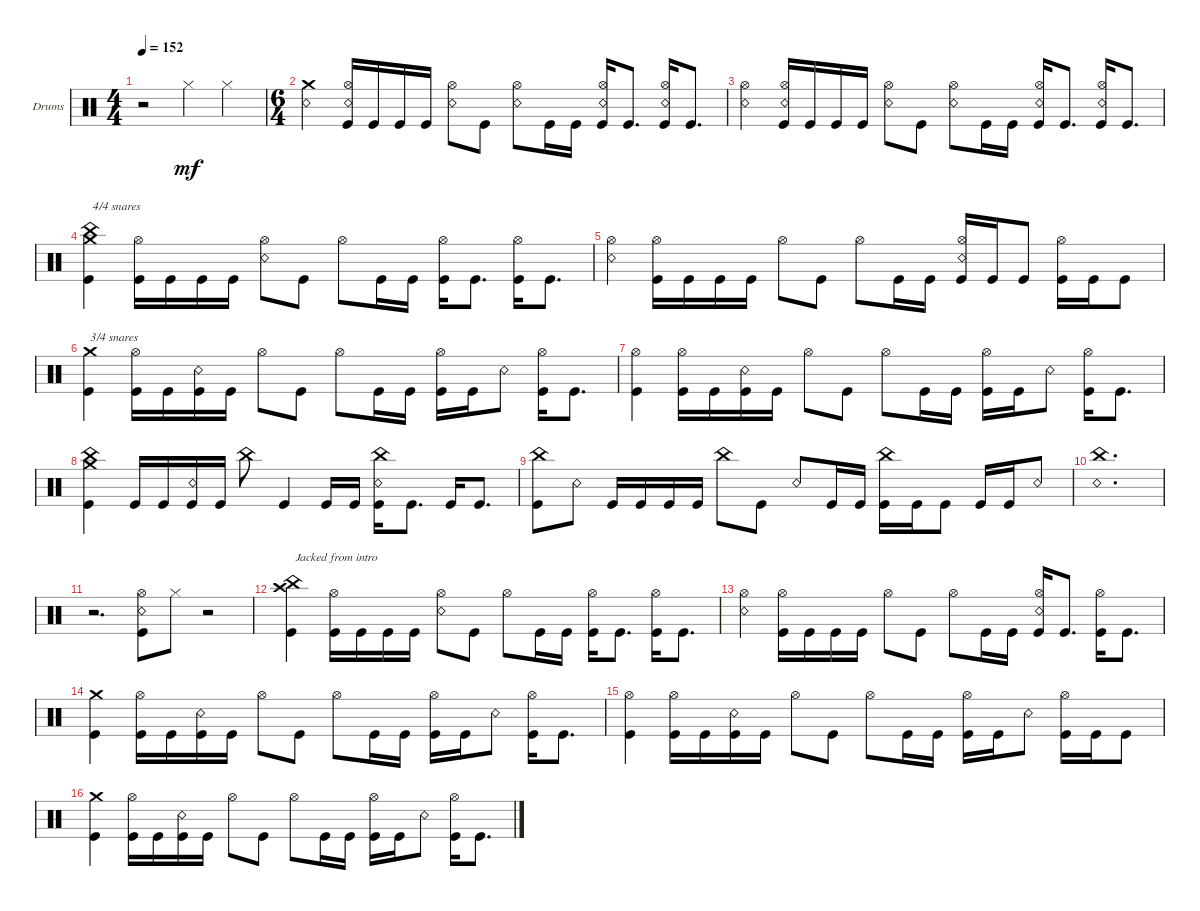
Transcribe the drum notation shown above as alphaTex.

\defaultSystemsLayout 4
\bracketExtendMode groupsimilarinstruments
\firstSystemTrackNameOrientation horizontal
\otherSystemsTrackNameOrientation horizontal
\track ("Drumkit" "Drums") {instrument percussion}
\staff {score}
\articulation defaults
\ts (4 4)
\tempo 152
\clef neutral
\ks c
r.2{dy mf} "Hi-Hat (closed)".4 "Hi-Hat (closed)".4 |
\ts (6 4)
("Snare (rim shot)" "Crash medium (hit)").4 ("Snare (rim shot)" "Hi-Hat (open)" "Kick (hit)").16 "Kick (hit)".16 "Kick (hit)".16 "Kick (hit)".16 ("Snare (rim shot)" "Hi-Hat (open)").8 "Kick (hit)".8 ("Snare (rim shot)" "Hi-Hat (open)").8 "Kick (hit)".16 "Kick (hit)".16 ("Kick (hit)" "Snare (rim shot)" "Hi-Hat (open)").16 "Kick (hit)".8{d} ("Snare (rim shot)" "Hi-Hat (open)" "Kick (hit)").16 "Kick (hit)".8{d} |
("Snare (rim shot)" "Hi-Hat (open)").4 ("Snare (rim shot)" "Hi-Hat (open)" "Kick (hit)").16 "Kick (hit)".16 "Kick (hit)".16 "Kick (hit)".16 ("Snare (rim shot)" "Hi-Hat (open)").8 "Kick (hit)".8 ("Snare (rim shot)" "Hi-Hat (open)").8 "Kick (hit)".16 "Kick (hit)".16 ("Kick (hit)" "Snare (rim shot)" "Hi-Hat (open)").16 "Kick (hit)".8{d} ("Snare (rim shot)" "Hi-Hat (open)" "Kick (hit)").16 "Kick (hit)".8{d} |
("Crash medium (hit)" "Kick (hit)" "China (hit)").4{txt "4/4 snares"} ("Hi-Hat (open)" "Kick (hit)").16 "Kick (hit)".16 "Kick (hit)".16 "Kick (hit)".16 ("Snare (rim shot)" "Hi-Hat (open)").8 "Kick (hit)".8 "Hi-Hat (open)".8 "Kick (hit)".16 "Kick (hit)".16 ("Kick (hit)" "Hi-Hat (open)").16 "Kick (hit)".8{d} ("Hi-Hat (open)" "Kick (hit)").16 "Kick (hit)".8{d} |
("Snare (rim shot)" "Hi-Hat (open)").4 ("Hi-Hat (open)" "Kick (hit)").16 "Kick (hit)".16 "Kick (hit)".16 "Kick (hit)".16 "Hi-Hat (open)".8 "Kick (hit)".8 "Hi-Hat (open)".8 "Kick (hit)".16 "Kick (hit)".16 ("Kick (hit)" "Snare (rim shot)" "Hi-Hat (open)").16 "Kick (hit)".16 "Kick (hit)".8 ("Hi-Hat (open)" "Kick (hit)").16 "Kick (hit)".16 "Kick (hit)".8 |
("Crash medium (hit)" "Kick (hit)").4{txt "3/4 snares"} ("Hi-Hat (open)" "Kick (hit)").16 "Kick (hit)".16 ("Kick (hit)" "Snare (rim shot)").16 "Kick (hit)".16 "Hi-Hat (open)".8 "Kick (hit)".8 "Hi-Hat (open)".8 "Kick (hit)".16 "Kick (hit)".16 ("Kick (hit)" "Hi-Hat (open)").16 "Kick (hit)".16 "Snare (rim shot)".8 ("Hi-Hat (open)" "Kick (hit)").16 "Kick (hit)".8{d} |
("Kick (hit)" "Hi-Hat (open)").4 ("Hi-Hat (open)" "Kick (hit)").16 "Kick (hit)".16 ("Kick (hit)" "Snare (rim shot)").16 "Kick (hit)".16 "Hi-Hat (open)".8 "Kick (hit)".8 "Hi-Hat (open)".8 "Kick (hit)".16 "Kick (hit)".16 ("Kick (hit)" "Hi-Hat (open)").16 "Kick (hit)".16 "Snare (rim shot)".8 ("Hi-Hat (open)" "Kick (hit)").16 "Kick (hit)".8{d} |
("Crash medium (hit)" "Kick (hit)" "China (hit)").4 "Kick (hit)".16 "Kick (hit)".16 ("Kick (hit)" "Snare (rim shot)").16 "Kick (hit)".16 "China (hit)".8 "Kick (hit)".4 "Kick (hit)".16 "Kick (hit)".16 ("Kick (hit)" "Snare (rim shot)" "China (hit)").16 "Kick (hit)".8{d} "Kick (hit)".16 "Kick (hit)".8{d} |
("Kick (hit)" "China (hit)").8 "Snare (rim shot)".8 "Kick (hit)".16 "Kick (hit)".16 "Kick (hit)".16 "Kick (hit)".16 "China (hit)".8 "Kick (hit)".8 "Snare (rim shot)".8 "Kick (hit)".16 "Kick (hit)".16 ("Kick (hit)" "China (hit)").16 "Kick (hit)".16 "Kick (hit)".8 "Kick (hit)".16 "Kick (hit)".16 "Snare (rim shot)".8 |
("Snare (rim shot)" "China (hit)").1{d} |
r.2{d} ("Snare (rim shot)" "Hi-Hat (open)" "Kick (hit)").8 "Hi-Hat (closed)".8 r.2 |
("Kick (hit)" "China (hit)" "Crash high (hit)").4{txt "Jacked from intro"} ("Hi-Hat (open)" "Kick (hit)").16 "Kick (hit)".16 "Kick (hit)".16 "Kick (hit)".16 ("Snare (rim shot)" "Hi-Hat (open)").8 "Kick (hit)".8 "Hi-Hat (open)".8 "Kick (hit)".16 "Kick (hit)".16 ("Kick (hit)" "Hi-Hat (open)").16 "Kick (hit)".8{d} ("Hi-Hat (open)" "Kick (hit)").16 "Kick (hit)".8{d} |
("Snare (rim shot)" "Hi-Hat (open)").4 ("Hi-Hat (open)" "Kick (hit)").16 "Kick (hit)".16 "Kick (hit)".16 "Kick (hit)".16 "Hi-Hat (open)".8 "Kick (hit)".8 "Hi-Hat (open)".8 "Kick (hit)".16 "Kick (hit)".16 ("Kick (hit)" "Snare (rim shot)" "Hi-Hat (open)").16 "Kick (hit)".8{d} ("Hi-Hat (open)" "Kick (hit)").16 "Kick (hit)".8{d} |
("Crash medium (hit)" "Kick (hit)").4 ("Hi-Hat (open)" "Kick (hit)").16 "Kick (hit)".16 ("Kick (hit)" "Snare (rim shot)").16 "Kick (hit)".16 "Hi-Hat (open)".8 "Kick (hit)".8 "Hi-Hat (open)".8 "Kick (hit)".16 "Kick (hit)".16 ("Kick (hit)" "Hi-Hat (open)").16 "Kick (hit)".16 "Snare (rim shot)".8 ("Hi-Hat (open)" "Kick (hit)").16 "Kick (hit)".8{d} |
("Kick (hit)" "Hi-Hat (open)").4 ("Hi-Hat (open)" "Kick (hit)").16 "Kick (hit)".16 ("Kick (hit)" "Snare (rim shot)").16 "Kick (hit)".16 "Hi-Hat (open)".8 "Kick (hit)".8 "Hi-Hat (open)".8 "Kick (hit)".16 "Kick (hit)".16 ("Kick (hit)" "Hi-Hat (open)").16 "Kick (hit)".16 "Snare (rim shot)".8 ("Hi-Hat (open)" "Kick (hit)").16 "Kick (hit)".16 "Kick (hit)".8 |
("Crash medium (hit)" "Kick (hit)").4 ("Hi-Hat (open)" "Kick (hit)").16 "Kick (hit)".16 ("Kick (hit)" "Snare (rim shot)").16 "Kick (hit)".16 "Hi-Hat (open)".8 "Kick (hit)".8 "Hi-Hat (open)".8 "Kick (hit)".16 "Kick (hit)".16 ("Kick (hit)" "Hi-Hat (open)").16 "Kick (hit)".16 "Snare (rim shot)".8 ("Hi-Hat (open)" "Kick (hit)").16 "Kick (hit)".8{d}
